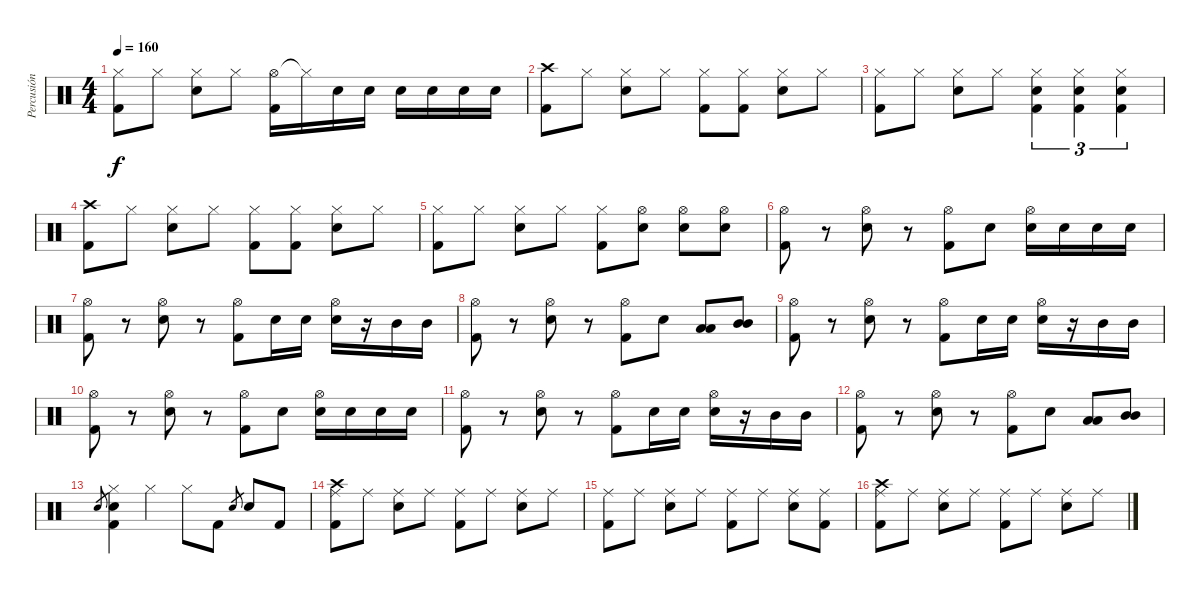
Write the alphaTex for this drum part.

\track ("Percusión" "Percusión") {instrument percussion}
\staff {score}
\articulation defaults
\ts (4 4)
\tempo 160
\clef neutral
\ks c
("Hi-Hat (closed)" "Kick (hit) 2").8{dy f} "Hi-Hat (closed)".8 ("Hi-Hat (closed)" "Snare (hit) 2").8 "Hi-Hat (closed)".8 ("Hi-Hat (open)" "Kick (hit) 2").16 "Hi-Hat (closed)"{t}.16 "Snare (hit) 2".16 "Snare (hit) 2".16 "Snare (hit) 2".16 "Snare (hit) 2".16 "Snare (hit) 2".16 "Snare (hit) 2".16 |
("Crash high (hit)" "Kick (hit) 2").8 "Hi-Hat (closed)".8 ("Hi-Hat (closed)" "Snare (hit) 2").8 "Hi-Hat (closed)".8 ("Hi-Hat (closed)" "Kick (hit) 2").8 ("Hi-Hat (closed)" "Kick (hit) 2").8 ("Hi-Hat (closed)" "Snare (hit) 2").8 "Hi-Hat (closed)".8 |
("Hi-Hat (closed)" "Kick (hit) 2").8 "Hi-Hat (closed)".8 ("Hi-Hat (closed)" "Snare (hit) 2").8 "Hi-Hat (closed)".8 ("Hi-Hat (closed)" "Snare (hit) 2" "Kick (hit) 2").4{tu (3 2)} ("Hi-Hat (closed)" "Snare (hit) 2" "Kick (hit) 2").4{tu (3 2)} ("Hi-Hat (closed)" "Snare (hit) 2" "Kick (hit) 2").4{tu (3 2)} |
("Crash high (hit)" "Kick (hit) 2").8 "Hi-Hat (closed)".8 ("Hi-Hat (closed)" "Snare (hit) 2").8 "Hi-Hat (closed)".8 ("Hi-Hat (closed)" "Kick (hit) 2").8 ("Hi-Hat (closed)" "Kick (hit) 2").8 ("Hi-Hat (closed)" "Snare (hit) 2").8 "Hi-Hat (closed)".8 |
("Hi-Hat (closed)" "Kick (hit) 2").8 "Hi-Hat (closed)".8 ("Hi-Hat (closed)" "Snare (hit) 2").8 "Hi-Hat (closed)".8 ("Hi-Hat (closed)" "Kick (hit) 2").8 ("Hi-Hat (open)" "Snare (hit) 2").8 ("Hi-Hat (open)" "Snare (hit) 2").8 ("Hi-Hat (open)" "Snare (hit) 2").8 |
("Hi-Hat (open)" "Kick (hit) 2").8 r.8 ("Hi-Hat (open)" "Snare (hit) 2").8 r.8 ("Hi-Hat (open)" "Kick (hit) 2").8 "Snare (hit) 2".8 ("Hi-Hat (open)" "Snare (hit) 2").16 "Snare (hit) 2".16 "Snare (hit) 2".16 "Snare (hit) 2".16 |
("Hi-Hat (open)" "Kick (hit) 2").8 r.8 ("Hi-Hat (open)" "Snare (hit) 2").8 r.8 ("Hi-Hat (open)" "Kick (hit) 2").8 "Snare (hit) 2".16 "Snare (hit) 2".16 ("Hi-Hat (open)" "Snare (hit) 2").16 r.16 "Mid Tom (hit)".16 "Mid Tom (hit)".16 |
("Hi-Hat (open)" "Kick (hit) 2").8 r.8 ("Hi-Hat (open)" "Snare (hit) 2").8 r.8 ("Hi-Hat (open)" "Kick (hit) 2").8 "Snare (hit) 2".8 ("Low Tom (hit)" "Low Tom (hit)").8 ("Mid Tom (hit)" "Mid Tom (hit)").8 |
("Hi-Hat (open)" "Kick (hit) 2").8 r.8 ("Hi-Hat (open)" "Snare (hit) 2").8 r.8 ("Hi-Hat (open)" "Kick (hit) 2").8 "Snare (hit) 2".16 "Snare (hit) 2".16 ("Hi-Hat (open)" "Snare (hit) 2").16 r.16 "Mid Tom (hit)".16 "Mid Tom (hit)".16 |
("Hi-Hat (open)" "Kick (hit) 2").8 r.8 ("Hi-Hat (open)" "Snare (hit) 2").8 r.8 ("Hi-Hat (open)" "Kick (hit) 2").8 "Snare (hit) 2".8 ("Hi-Hat (open)" "Snare (hit) 2").16 "Snare (hit) 2".16 "Snare (hit) 2".16 "Snare (hit) 2".16 |
("Hi-Hat (open)" "Kick (hit) 2").8 r.8 ("Hi-Hat (open)" "Snare (hit) 2").8 r.8 ("Hi-Hat (open)" "Kick (hit) 2").8 "Snare (hit) 2".16 "Snare (hit) 2".16 ("Hi-Hat (open)" "Snare (hit) 2").16 r.16 "Mid Tom (hit)".16 "Mid Tom (hit)".16 |
("Hi-Hat (open)" "Kick (hit) 2").8 r.8 ("Hi-Hat (open)" "Snare (hit) 2").8 r.8 ("Hi-Hat (open)" "Kick (hit) 2").8 "Snare (hit) 2".8 ("Low Tom (hit)" "Low Tom (hit)").8 ("Mid Tom (hit)" "Mid Tom (hit)").8 |
"Snare (hit) 2".8{gr} ("Hi-Hat (closed)" "Snare (hit) 2" "Kick (hit) 2").4 "Hi-Hat (closed)".4 "Hi-Hat (closed)".8 "Kick (hit) 2".8 "Snare (hit) 2".8{gr} "Snare (hit) 2".8 "Kick (hit) 2".8 |
("Crash high (hit)" "Ride (middle)" "Kick (hit) 2").8 "Ride (middle)".8 ("Ride (middle)" "Snare (hit) 2").8 "Ride (middle)".8 ("Ride (middle)" "Kick (hit) 2").8 "Ride (middle)".8 ("Ride (middle)" "Snare (hit) 2").8 "Ride (middle)".8 |
("Ride (middle)" "Kick (hit) 2").8 "Ride (middle)".8 ("Ride (middle)" "Snare (hit) 2").8 "Ride (middle)".8 ("Ride (middle)" "Kick (hit) 2").8 "Ride (middle)".8 ("Ride (middle)" "Snare (hit) 2").8 ("Ride (middle)" "Kick (hit) 2").8 |
("Crash high (hit)" "Ride (middle)" "Kick (hit) 2").8 "Ride (middle)".8 ("Ride (middle)" "Snare (hit) 2").8 "Ride (middle)".8 ("Ride (middle)" "Kick (hit) 2").8 "Ride (middle)".8 ("Ride (middle)" "Snare (hit) 2").8 "Ride (middle)".8
